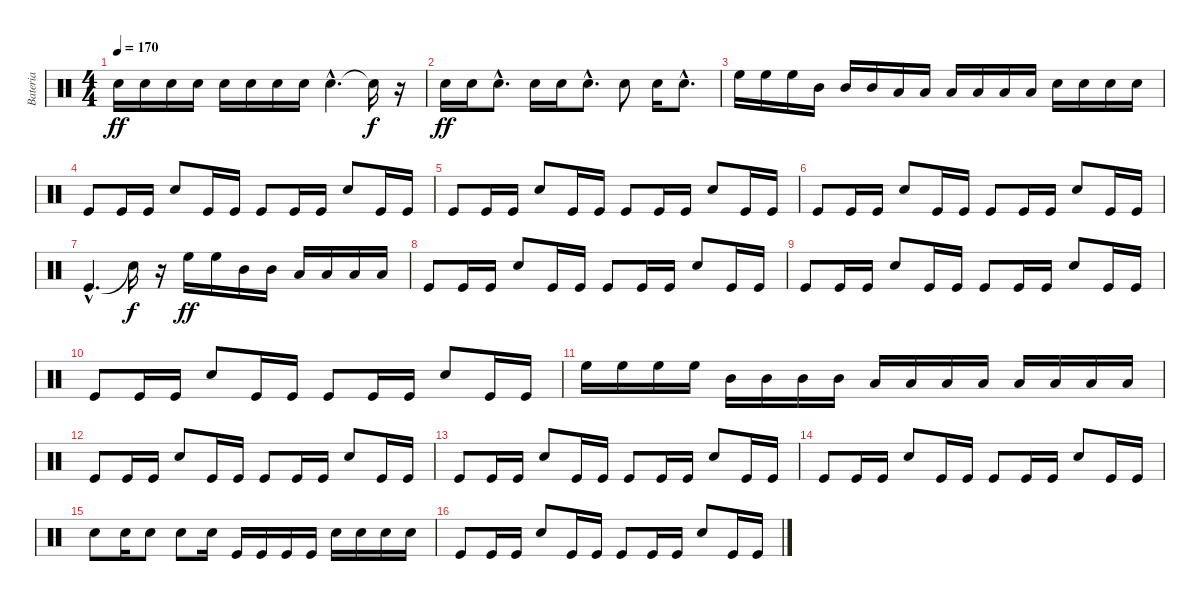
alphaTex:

\track ("Bateria" "Bateria") {instrument percussion}
\staff {score}
\articulation defaults
\ts (4 4)
\tempo 170
\clef neutral
\ks c "Electric Snare (hit)".16{dy ff} "Electric Snare (hit)".16 "Electric Snare (hit)".16 "Electric Snare (hit)".16 "Electric Snare (hit)".16 "Electric Snare (hit)".16 "Electric Snare (hit)".16 "Electric Snare (hit)".16 "Electric Snare (hit)"{hac}.4{d} "Snare (hit)"{t}.16{dy f}
r.16 |
"Electric Snare (hit)".16{dy ff} "Electric Snare (hit)".16 "Electric Snare (hit)"{hac}.8{d} "Electric Snare (hit)".16 "Electric Snare (hit)".16 "Electric Snare (hit)"{hac}.8{d} "Electric Snare (hit)".8 "Electric Snare (hit)".16 "Electric Snare (hit)"{hac}.8{d} |
"High Floor Tom (hit)".16 "High Floor Tom (hit)".16 "High Floor Tom (hit)".16 "Mid Tom (hit)".16 "Mid Tom (hit)".16 "Mid Tom (hit)".16 "Low Tom (hit)".16 "Low Tom (hit)".16 "Low Tom (hit)".16 "Low Floor Tom (hit)".16 "Low Floor Tom (hit)".16 "Low Floor Tom (hit)".16 "Electric Snare (hit)".16 "Electric Snare (hit)".16 "Electric Snare (hit)".16 "Electric Snare (hit)".16 |
"Kick (hit)".8 "Kick (hit)".16 "Kick (hit)".16 "Electric Snare (hit)".8 "Kick (hit)".16 "Kick (hit)".16 "Kick (hit)".8 "Kick (hit)".16 "Kick (hit)".16 "Electric Snare (hit)".8 "Kick (hit)".16 "Kick (hit)".16 |
"Kick (hit)".8 "Kick (hit)".16 "Kick (hit)".16 "Electric Snare (hit)".8 "Kick (hit)".16 "Kick (hit)".16 "Kick (hit)".8 "Kick (hit)".16 "Kick (hit)".16 "Electric Snare (hit)".8 "Kick (hit)".16 "Kick (hit)".16 |
"Kick (hit)".8 "Kick (hit)".16 "Kick (hit)".16 "Electric Snare (hit)".8 "Kick (hit)".16 "Kick (hit)".16 "Kick (hit)".8 "Kick (hit)".16 "Kick (hit)".16 "Electric Snare (hit)".8 "Kick (hit)".16 "Kick (hit)".16 |
"Kick (hit)"{hac}.4{d} "Snare (hit)"{t}.16{dy f} r.16 "High Floor Tom (hit)".16{dy ff} "High Floor Tom (hit)".16 "Mid Tom (hit)".16 "Mid Tom (hit)".16 "Low Tom (hit)".16 "Low Tom (hit)".16 "Low Floor Tom (hit)".16 "Low Floor Tom (hit)".16 |
"Kick (hit)".8 "Kick (hit)".16 "Kick (hit)".16 "Electric Snare (hit)".8 "Kick (hit)".16 "Kick (hit)".16 "Kick (hit)".8 "Kick (hit)".16 "Kick (hit)".16 "Electric Snare (hit)".8 "Kick (hit)".16 "Kick (hit)".16 |
"Kick (hit)".8 "Kick (hit)".16 "Kick (hit)".16 "Electric Snare (hit)".8 "Kick (hit)".16 "Kick (hit)".16 "Kick (hit)".8 "Kick (hit)".16 "Kick (hit)".16 "Electric Snare (hit)".8 "Kick (hit)".16 "Kick (hit)".16 |
"Kick (hit)".8 "Kick (hit)".16 "Kick (hit)".16 "Electric Snare (hit)".8 "Kick (hit)".16 "Kick (hit)".16 "Kick (hit)".8 "Kick (hit)".16 "Kick (hit)".16 "Electric Snare (hit)".8 "Kick (hit)".16 "Kick (hit)".16 |
"High Floor Tom (hit)".16 "High Floor Tom (hit)".16 "High Floor Tom (hit)".16 "High Floor Tom (hit)".16 "Mid Tom (hit)".16 "Mid Tom (hit)".16 "Mid Tom (hit)".16 "Mid Tom (hit)".16 "Low Tom (hit)".16 "Low Tom (hit)".16 "Low Tom (hit)".16 "Low Tom (hit)".16 "Low Floor Tom (hit)".16 "Low Floor Tom (hit)".16 "Low Floor Tom (hit)".16 "Low Floor Tom (hit)".16 |
"Kick (hit)".8 "Kick (hit)".16 "Kick (hit)".16 "Electric Snare (hit)".8 "Kick (hit)".16 "Kick (hit)".16 "Kick (hit)".8 "Kick (hit)".16 "Kick (hit)".16 "Electric Snare (hit)".8 "Kick (hit)".16 "Kick (hit)".16 |
"Kick (hit)".8 "Kick (hit)".16 "Kick (hit)".16 "Electric Snare (hit)".8 "Kick (hit)".16 "Kick (hit)".16 "Kick (hit)".8 "Kick (hit)".16 "Kick (hit)".16 "Electric Snare (hit)".8 "Kick (hit)".16 "Kick (hit)".16 |
"Kick (hit)".8 "Kick (hit)".16 "Kick (hit)".16 "Electric Snare (hit)".8 "Kick (hit)".16 "Kick (hit)".16 "Kick (hit)".8 "Kick (hit)".16 "Kick (hit)".16 "Electric Snare (hit)".8 "Kick (hit)".16 "Kick (hit)".16 |
"Electric Snare (hit)".8 "Electric Snare (hit)".16 "Electric Snare (hit)".8 "Electric Snare (hit)".8 "Electric Snare (hit)".16 "Kick (hit)".16 "Kick (hit)".16 "Kick (hit)".16 "Kick (hit)".16 "Electric Snare (hit)".16 "Electric Snare (hit)".16 "Electric Snare (hit)".16 "Electric Snare (hit)".16 |
"Kick (hit)".8 "Kick (hit)".16 "Kick (hit)".16 "Electric Snare (hit)".8 "Kick (hit)".16 "Kick (hit)".16 "Kick (hit)".8 "Kick (hit)".16 "Kick (hit)".16 "Electric Snare (hit)".8 "Kick (hit)".16 "Kick (hit)".16
